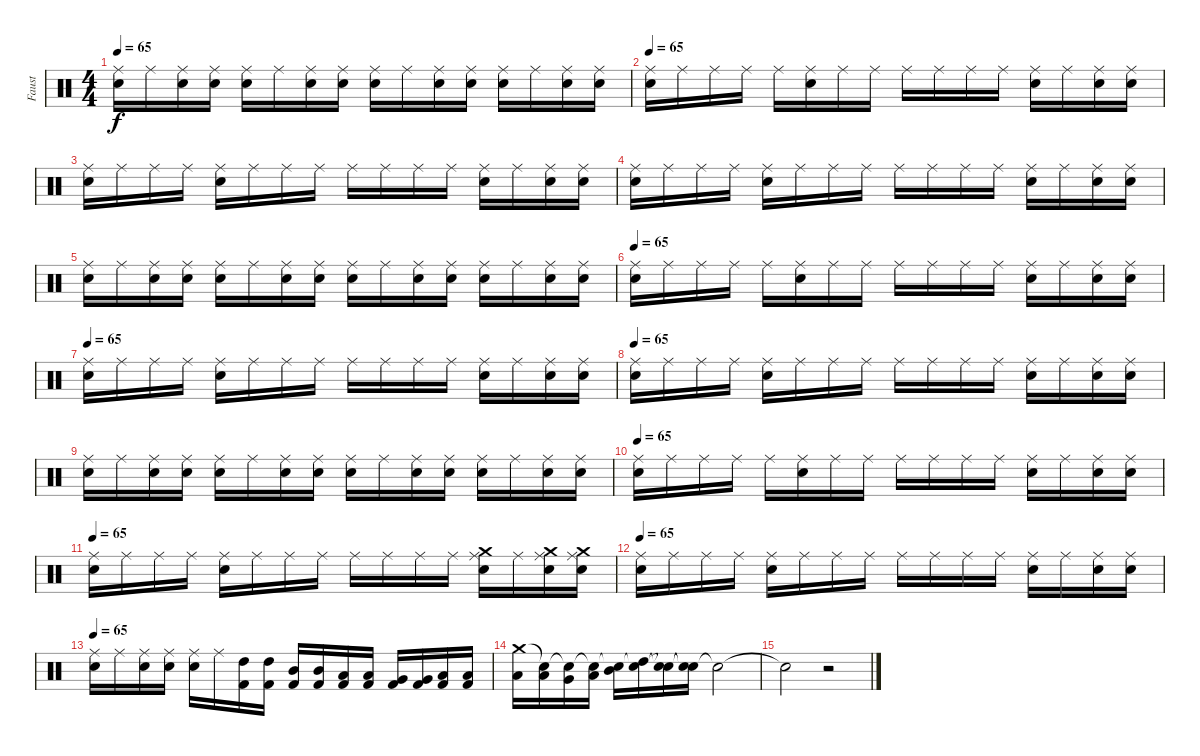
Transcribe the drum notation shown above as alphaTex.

\track ("Faust" "Faust") {instrument percussion}
\staff {score}
\articulation defaults
\ts (4 4)
\tempo 65
\clef neutral
\ks c
("Ride (middle)" "Electric Snare (hit)").16{dy f} "Ride (middle)".16 ("Ride (middle)" "Electric Snare (hit)").16 ("Ride (middle)" "Electric Snare (hit)").16 ("Ride (middle)" "Electric Snare (hit)").16 "Ride (middle)".16 ("Ride (middle)" "Electric Snare (hit)").16 ("Ride (middle)" "Electric Snare (hit)").16 ("Ride (middle)" "Electric Snare (hit)").16 "Ride (middle)".16 ("Ride (middle)" "Electric Snare (hit)").16 ("Ride (middle)" "Electric Snare (hit)").16 ("Ride (middle)" "Electric Snare (hit)").16 "Ride (middle)".16 ("Ride (middle)" "Electric Snare (hit)").16 ("Ride (middle)" "Electric Snare (hit)").16 |
\tempo 65
("Ride (middle)" "Electric Snare (hit)").16 "Ride (middle)".16 "Ride (middle)".16 "Ride (middle)".16 "Ride (middle)".16 ("Ride (middle)" "Electric Snare (hit)").16 "Ride (middle)".16 "Ride (middle)".16 "Ride (middle)".16 "Ride (middle)".16 "Ride (middle)".16 "Ride (middle)".16 ("Ride (middle)" "Electric Snare (hit)").16 "Ride (middle)".16 ("Ride (middle)" "Electric Snare (hit)").16 ("Ride (middle)" "Electric Snare (hit)").16 |
("Ride (middle)" "Electric Snare (hit)").16 "Ride (middle)".16 "Ride (middle)".16 "Ride (middle)".16 ("Ride (middle)" "Electric Snare (hit)").16 "Ride (middle)".16 "Ride (middle)".16 "Ride (middle)".16 "Ride (middle)".16 "Ride (middle)".16 "Ride (middle)".16 "Ride (middle)".16 ("Ride (middle)" "Electric Snare (hit)").16 "Ride (middle)".16 ("Ride (middle)" "Electric Snare (hit)").16 ("Ride (middle)" "Electric Snare (hit)").16 |
("Ride (middle)" "Electric Snare (hit)").16 "Ride (middle)".16 "Ride (middle)".16 "Ride (middle)".16 ("Ride (middle)" "Electric Snare (hit)").16 "Ride (middle)".16 "Ride (middle)".16 "Ride (middle)".16 "Ride (middle)".16 "Ride (middle)".16 "Ride (middle)".16 "Ride (middle)".16 ("Ride (middle)" "Electric Snare (hit)").16 "Ride (middle)".16 ("Ride (middle)" "Electric Snare (hit)").16 ("Ride (middle)" "Electric Snare (hit)").16 |
("Ride (middle)" "Electric Snare (hit)").16 "Ride (middle)".16 ("Ride (middle)" "Electric Snare (hit)").16 ("Ride (middle)" "Electric Snare (hit)").16 ("Ride (middle)" "Electric Snare (hit)").16 "Ride (middle)".16 ("Ride (middle)" "Electric Snare (hit)").16 ("Ride (middle)" "Electric Snare (hit)").16 ("Ride (middle)" "Electric Snare (hit)").16 "Ride (middle)".16 ("Ride (middle)" "Electric Snare (hit)").16 ("Ride (middle)" "Electric Snare (hit)").16 ("Ride (middle)" "Electric Snare (hit)").16 "Ride (middle)".16 ("Ride (middle)" "Electric Snare (hit)").16 ("Ride (middle)" "Electric Snare (hit)").16 |
\tempo 65
("Ride (middle)" "Electric Snare (hit)").16 "Ride (middle)".16 "Ride (middle)".16 "Ride (middle)".16 "Ride (middle)".16 ("Ride (middle)" "Electric Snare (hit)").16 "Ride (middle)".16 "Ride (middle)".16 "Ride (middle)".16 "Ride (middle)".16 "Ride (middle)".16 "Ride (middle)".16 ("Ride (middle)" "Electric Snare (hit)").16 "Ride (middle)".16 ("Ride (middle)" "Electric Snare (hit)").16 ("Ride (middle)" "Electric Snare (hit)").16 |
\tempo 65
("Ride (middle)" "Electric Snare (hit)").16 "Ride (middle)".16 "Ride (middle)".16 "Ride (middle)".16 ("Ride (middle)" "Electric Snare (hit)").16 "Ride (middle)".16 "Ride (middle)".16 "Ride (middle)".16 "Ride (middle)".16 "Ride (middle)".16 "Ride (middle)".16 "Ride (middle)".16 ("Ride (middle)" "Electric Snare (hit)").16 "Ride (middle)".16 ("Ride (middle)" "Electric Snare (hit)").16 ("Ride (middle)" "Electric Snare (hit)").16 |
\tempo 65
("Ride (middle)" "Electric Snare (hit)").16 "Ride (middle)".16 "Ride (middle)".16 "Ride (middle)".16 ("Ride (middle)" "Electric Snare (hit)").16 "Ride (middle)".16 "Ride (middle)".16 "Ride (middle)".16 "Ride (middle)".16 "Ride (middle)".16 "Ride (middle)".16 "Ride (middle)".16 ("Ride (middle)" "Electric Snare (hit)").16 "Ride (middle)".16 ("Ride (middle)" "Electric Snare (hit)").16 ("Ride (middle)" "Electric Snare (hit)").16 |
("Ride (middle)" "Electric Snare (hit)").16 "Ride (middle)".16 ("Ride (middle)" "Electric Snare (hit)").16 ("Ride (middle)" "Electric Snare (hit)").16 ("Ride (middle)" "Electric Snare (hit)").16 "Ride (middle)".16 ("Ride (middle)" "Electric Snare (hit)").16 ("Ride (middle)" "Electric Snare (hit)").16 ("Ride (middle)" "Electric Snare (hit)").16 "Ride (middle)".16 ("Ride (middle)" "Electric Snare (hit)").16 ("Ride (middle)" "Electric Snare (hit)").16 ("Ride (middle)" "Electric Snare (hit)").16 "Ride (middle)".16 ("Ride (middle)" "Electric Snare (hit)").16 ("Ride (middle)" "Electric Snare (hit)").16 |
\tempo 65
("Ride (middle)" "Electric Snare (hit)").16 "Ride (middle)".16 "Ride (middle)".16 "Ride (middle)".16 "Ride (middle)".16 ("Ride (middle)" "Electric Snare (hit)").16 "Ride (middle)".16 "Ride (middle)".16 "Ride (middle)".16 "Ride (middle)".16 "Ride (middle)".16 "Ride (middle)".16 ("Ride (middle)" "Electric Snare (hit)").16 "Ride (middle)".16 ("Ride (middle)" "Electric Snare (hit)").16 ("Ride (middle)" "Electric Snare (hit)").16 |
\tempo 65
("Ride (middle)" "Electric Snare (hit)").16 "Ride (middle)".16 "Ride (middle)".16 "Ride (middle)".16 ("Ride (middle)" "Electric Snare (hit)").16 "Ride (middle)".16 "Ride (middle)".16 "Ride (middle)".16 "Ride (middle)".16 "Ride (middle)".16 "Ride (middle)".16 "Ride (middle)".16 ("Crash medium (hit)" "Ride (middle)" "Electric Snare (hit)").16 "Ride (middle)".16 ("Crash medium (hit)" "Ride (middle)" "Electric Snare (hit)").16 ("Crash medium (hit)" "Ride (middle)" "Electric Snare (hit)").16 |
\tempo 65
("Ride (middle)" "Electric Snare (hit)").16 "Ride (middle)".16 "Ride (middle)".16 "Ride (middle)".16 ("Ride (middle)" "Electric Snare (hit)").16 "Ride (middle)".16 "Ride (middle)".16 "Ride (middle)".16 "Ride (middle)".16 "Ride (middle)".16 "Ride (middle)".16 "Ride (middle)".16 ("Ride (middle)" "Electric Snare (hit)").16 "Ride (middle)".16 ("Ride (middle)" "Electric Snare (hit)").16 ("Ride (middle)" "Electric Snare (hit)").16 |
\tempo 65
("Ride (middle)" "Electric Snare (hit)").16 "Ride (middle)".16 ("Ride (middle)" "Electric Snare (hit)").16 ("Ride (middle)" "Electric Snare (hit)").16 ("Ride (middle)" "Electric Snare (hit)").16 "Ride (middle)".16 ("High Tom (hit)" "Kick (hit) 2").16 ("High Tom (hit)" "Kick (hit) 2").16 ("Mid Tom (hit)" "Kick (hit) 2").16 ("Mid Tom (hit)" "Kick (hit) 2").16 ("Low Tom (hit)" "Kick (hit) 2").16 ("Low Tom (hit)" "Kick (hit) 2").16 ("Very Low Tom (hit)" "Kick (hit) 2").16 ("Very Low Tom (hit)" "Kick (hit) 2").16 ("Low Floor Tom (hit)" "Kick (hit) 2").16 ("Low Floor Tom (hit)" "Kick (hit) 2").16 |
("Crash medium (hit)"{tr (57 16)} "Low Floor Tom (hit)").16 ("Snare (hit)"{t} "Low Floor Tom (hit)").16 ("Snare (hit)"{t} "Very Low Tom (hit)").16 ("Snare (hit)"{t} "Low Tom (hit)").16 ("Snare (hit)"{t} "Mid Tom (hit)").16 ("Snare (hit)"{t} "High Tom (hit)").16 ("Snare (hit)"{t} "Snare (hit)"{t}).16 ("Snare (hit)"{t} "Snare (hit)"{t}).16 "Snare (hit)"{t}.2 |
"Snare (hit)"{t}.2 r.2
